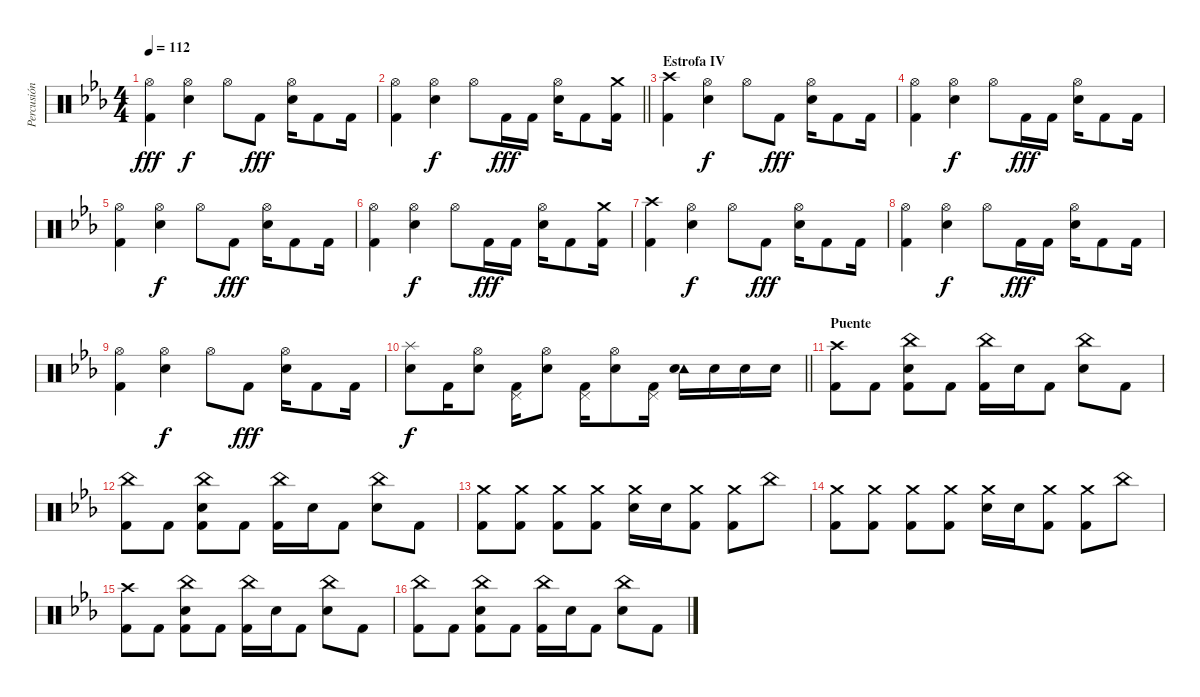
\track ("Percusión" "Percusión") {instrument percussion}
\staff {score}
\articulation defaults
\ts (4 4)
\tempo 112
\clef neutral
\ks cminor
("Hi-Hat (open)" "Kick (hit) 2").4{dy fff} ("Hi-Hat (open)" "Snare (hit) 2").4{dy f} "Hi-Hat (open)".8 "Kick (hit) 2".8{dy fff} ("Hi-Hat (open)" "Snare (hit) 2").16 "Kick (hit) 2".8 "Kick (hit) 2".16 |
\barLineRight lightlight
("Hi-Hat (open)" "Kick (hit) 2").4 ("Hi-Hat (open)" "Snare (hit) 2").4{dy f} "Hi-Hat (open)".8 "Kick (hit) 2".16{dy fff} "Kick (hit) 2".16 ("Hi-Hat (open)" "Snare (hit) 2").16 "Kick (hit) 2".8 ("Crash medium (hit)" "Kick (hit) 2").16 |
\section ("" "Estrofa IV")
("Crash high (hit)" "Kick (hit) 2").4 ("Hi-Hat (open)" "Snare (hit) 2").4{dy f} "Hi-Hat (open)".8 "Kick (hit) 2".8{dy fff} ("Hi-Hat (open)" "Snare (hit) 2").16 "Kick (hit) 2".8 "Kick (hit) 2".16 |
("Hi-Hat (open)" "Kick (hit) 2").4 ("Hi-Hat (open)" "Snare (hit) 2").4{dy f} "Hi-Hat (open)".8 "Kick (hit) 2".16{dy fff} "Kick (hit) 2".16 ("Hi-Hat (open)" "Snare (hit) 2").16 "Kick (hit) 2".8 "Kick (hit) 2".16 |
("Hi-Hat (open)" "Kick (hit) 2").4 ("Hi-Hat (open)" "Snare (hit) 2").4{dy f} "Hi-Hat (open)".8 "Kick (hit) 2".8{dy fff} ("Hi-Hat (open)" "Snare (hit) 2").16 "Kick (hit) 2".8 "Kick (hit) 2".16 |
("Hi-Hat (open)" "Kick (hit) 2").4 ("Hi-Hat (open)" "Snare (hit) 2").4{dy f} "Hi-Hat (open)".8 "Kick (hit) 2".16{dy fff} "Kick (hit) 2".16 ("Hi-Hat (open)" "Snare (hit) 2").16 "Kick (hit) 2".8 ("Crash medium (hit)" "Kick (hit) 2").16 |
("Crash high (hit)" "Kick (hit) 2").4 ("Hi-Hat (open)" "Snare (hit) 2").4{dy f} "Hi-Hat (open)".8 "Kick (hit) 2".8{dy fff} ("Hi-Hat (open)" "Snare (hit) 2").16 "Kick (hit) 2".8 "Kick (hit) 2".16 |
("Hi-Hat (open)" "Kick (hit) 2").4 ("Hi-Hat (open)" "Snare (hit) 2").4{dy f} "Hi-Hat (open)".8 "Kick (hit) 2".16{dy fff} "Kick (hit) 2".16 ("Hi-Hat (open)" "Snare (hit) 2").16 "Kick (hit) 2".8 "Kick (hit) 2".16 |
("Hi-Hat (open)" "Kick (hit) 2").4 ("Hi-Hat (open)" "Snare (hit) 2").4{dy f} "Hi-Hat (open)".8 "Kick (hit) 2".8{dy fff} ("Hi-Hat (open)" "Snare (hit) 2").16 "Kick (hit) 2".8 "Kick (hit) 2".16 |
\barLineRight lightlight
("Splash (hit)" "Snare (hit) 2").8{dy f} "Kick (hit) 2".16 ("Hi-Hat (open)" "Snare (hit) 2").8 ("Pedal Hi-Hat (hit)" "Kick (hit) 2").16 ("Hi-Hat (open)" "Snare (hit) 2").8 ("Pedal Hi-Hat (hit)" "Kick (hit) 2").16 ("Hi-Hat (open)" "Snare (hit) 2").8 ("Pedal Hi-Hat (hit)" "Kick (hit) 2").16 ("Tambourine (hit)" "Snare (hit) 2").16 "Snare (hit) 2".16 "Snare (hit) 2".16 "Snare (hit) 2".16 |
\section ("" "Puente")
("Crash high (hit)" "Kick (hit) 2").8 "Kick (hit) 2".8 ("China (hit)" "Snare (hit) 2" "Kick (hit) 2").8 "Kick (hit) 2".8 ("China (hit)" "Kick (hit) 2").16 "Snare (hit) 2".16 "Kick (hit) 2".8 ("China (hit)" "Snare (hit) 2").8 "Kick (hit) 2".8 |
("China (hit)" "Kick (hit) 2").8 "Kick (hit) 2".8 ("China (hit)" "Snare (hit) 2" "Kick (hit) 2").8 "Kick (hit) 2".8 ("China (hit)" "Kick (hit) 2").16 "Snare (hit) 2".16 "Kick (hit) 2".8 ("China (hit)" "Snare (hit) 2").8 "Kick (hit) 2".8 |
("Crash medium (hit)" "Kick (hit) 2").8 ("Crash medium (hit)" "Kick (hit) 2").8 ("Crash medium (hit)" "Kick (hit) 2").8 ("Crash medium (hit)" "Kick (hit) 2").8 ("Crash medium (hit)" "Snare (hit) 2").16 "Snare (hit) 2".16 ("Crash medium (hit)" "Kick (hit) 2").8 ("Crash medium (hit)" "Kick (hit) 2").8 "China (hit)".8 |
("Crash medium (hit)" "Kick (hit) 2").8 ("Crash medium (hit)" "Kick (hit) 2").8 ("Crash medium (hit)" "Kick (hit) 2").8 ("Crash medium (hit)" "Kick (hit) 2").8 ("Crash medium (hit)" "Snare (hit) 2").16 "Snare (hit) 2".16 ("Crash medium (hit)" "Kick (hit) 2").8 ("Crash medium (hit)" "Kick (hit) 2").8 "China (hit)".8 |
("Crash high (hit)" "Kick (hit) 2").8 "Kick (hit) 2".8 ("China (hit)" "Snare (hit) 2" "Kick (hit) 2").8 "Kick (hit) 2".8 ("China (hit)" "Kick (hit) 2").16 "Snare (hit) 2".16 "Kick (hit) 2".8 ("China (hit)" "Snare (hit) 2").8 "Kick (hit) 2".8 |
("China (hit)" "Kick (hit) 2").8 "Kick (hit) 2".8 ("China (hit)" "Snare (hit) 2" "Kick (hit) 2").8 "Kick (hit) 2".8 ("China (hit)" "Kick (hit) 2").16 "Snare (hit) 2".16 "Kick (hit) 2".8 ("China (hit)" "Snare (hit) 2").8 "Kick (hit) 2".8
